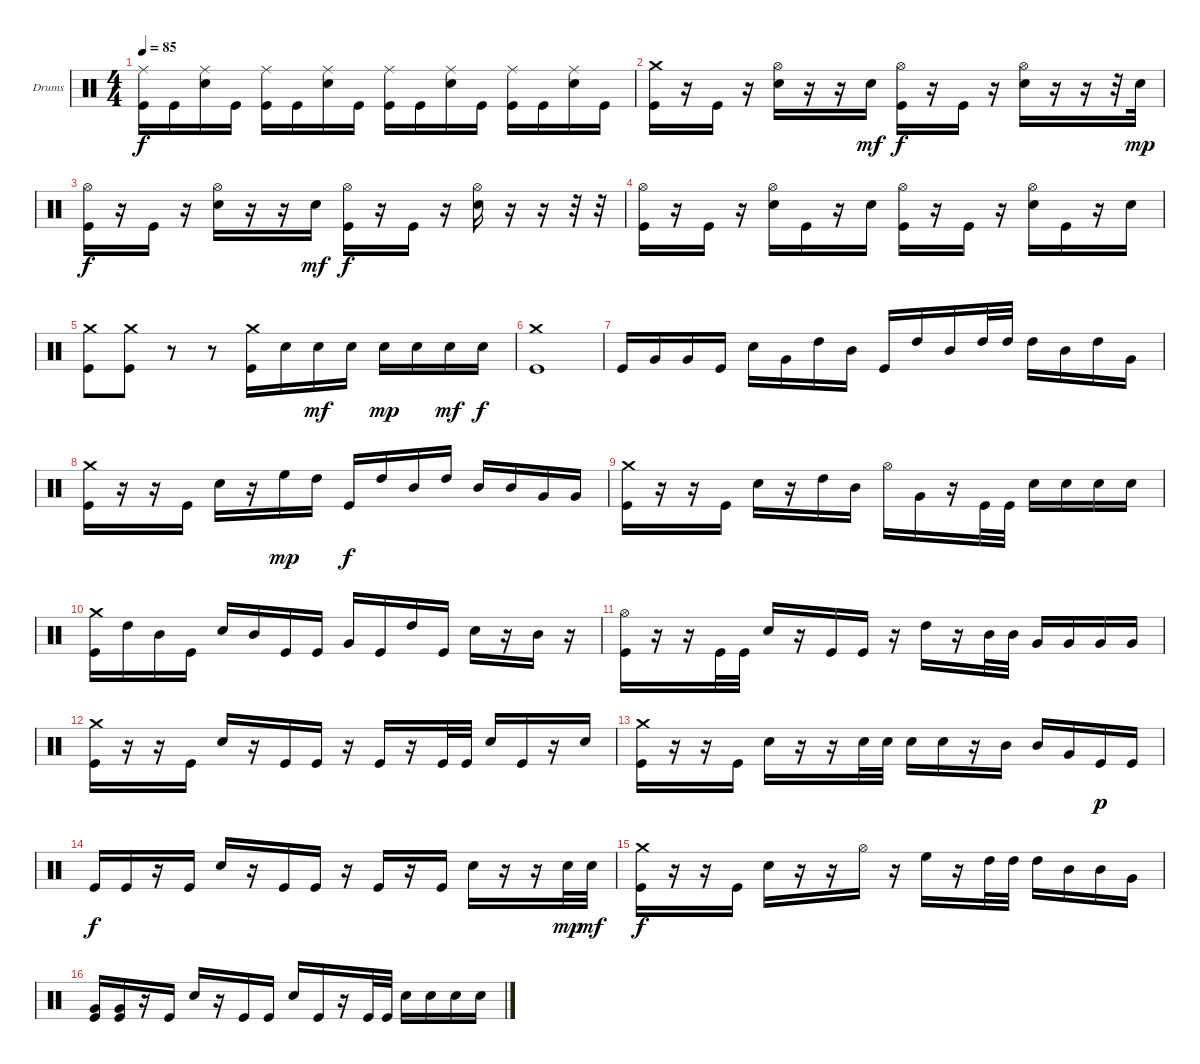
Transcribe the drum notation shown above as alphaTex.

\defaultSystemsLayout 4
\bracketExtendMode groupsimilarinstruments
\firstSystemTrackNameOrientation horizontal
\otherSystemsTrackNameOrientation horizontal
\track ("Drumkit" "Drums") {instrument percussion}
\staff {score}
\articulation defaults
\ts (4 4)
\tempo 85
\clef neutral
\scale
0.333333
\ks c
("Ride (middle)" "Kick (hit)").16{dy f} "Kick (hit)".16 ("Ride (middle)" "Snare (hit) 2").16 "Kick (hit)".16 ("Ride (middle)" "Kick (hit)").16 "Kick (hit)".16 ("Ride (middle)" "Snare (hit) 2").16 "Kick (hit)".16 ("Ride (middle)" "Kick (hit)").16 "Kick (hit)".16 ("Ride (middle)" "Snare (hit) 2").16 "Kick (hit)".16 ("Ride (middle)" "Kick (hit)").16 "Kick (hit)".16 ("Ride (middle)" "Snare (hit) 2").16 "Kick (hit)".16 |
\scale
0.333333 ("Crash medium (hit)" "Kick (hit)").16 r.16 "Kick (hit)".16 r.16 ("Hi-Hat (open)" "Snare (hit) 2").16 r.16 r.16 "Snare (hit) 2".16{dy mf} ("Hi-Hat (open)" "Kick (hit)").16{dy f} r.16 "Kick (hit)".16 r.16 ("Hi-Hat (open)" "Snare (hit) 2").16 r.16 r.16 r.32 "Snare (hit) 2".32{dy mp} |
\scale
0.333333 ("Hi-Hat (open)" "Kick (hit)").16{dy f} r.16 "Kick (hit)".16 r.16 ("Hi-Hat (open)" "Snare (hit) 2").16 r.16 r.16 "Snare (hit) 2".16{dy mf} ("Hi-Hat (open)" "Kick (hit)").16{dy f} r.16 "Kick (hit)".16 r.16 ("Hi-Hat (open)" "Snare (hit) 2").16 r.16 r.16 r.32 r.32 |
\scale
0.333333 ("Hi-Hat (open)" "Kick (hit)").16 r.16 "Kick (hit)".16 r.16 ("Hi-Hat (open)" "Snare (hit) 2").16 "Kick (hit)".16 r.16 "Snare (hit) 2".16 ("Hi-Hat (open)" "Kick (hit)").16 r.16 "Kick (hit)".16 r.16 ("Hi-Hat (open)" "Snare (hit) 2").16 "Kick (hit)".16 r.16 "Snare (hit) 2".16 |
\scale
0.333333 ("Crash medium (hit)" "Kick (hit)").8 ("Crash medium (hit)" "Kick (hit)").8 r.8 r.8 ("Crash medium (hit)" "Kick (hit)").16 "Snare (hit) 2".16 "Snare (hit) 2".16{dy mf} "Snare (hit) 2".16 "Snare (hit) 2".16{dy mp} "Snare (hit) 2".16 "Snare (hit) 2".16{dy mf} "Snare (hit) 2".16{dy f} |
\scale
0.333333 ("Crash medium (hit)" "Kick (hit)").1 |
\scale
0.333333 "Kick (hit)".16 "Very Low Tom (hit)".16 "Very Low Tom (hit)".16 "Kick (hit)".16 "Snare (hit) 2".16 "Very Low Tom (hit)".16 "High Tom (hit)".16 "Mid Tom (hit)".16 "Kick (hit)".16 "High Tom (hit)".16 "Mid Tom (hit)".16 "High Tom (hit)".32 "High Tom (hit)".32 "High Tom (hit)".16 "Mid Tom (hit)".16 "High Tom (hit)".16 "Very Low Tom (hit)".16 |
\scale
0.333333 ("Crash medium (hit)" "Kick (hit)").16 r.16 r.16 "Kick (hit)".16 "Snare (hit) 2".16 r.16 "High Floor Tom (hit)".16{dy mp} "High Tom (hit)".16 "Kick (hit)".16{dy f} "High Tom (hit)".16 "Mid Tom (hit)".16 "High Tom (hit)".16 "Mid Tom (hit)".16 "Mid Tom (hit)".16 "Very Low Tom (hit)".16 "Very Low Tom (hit)".16 |
\scale
0.333333 ("Crash medium (hit)" "Kick (hit)").16 r.16 r.16 "Kick (hit)".16 "Snare (hit) 2".16 r.16 "High Tom (hit)".16 "Mid Tom (hit)".16 "Hi-Hat (open)".16 "Very Low Tom (hit)".16 r.16 "Kick (hit)".32 "Kick (hit)".32 "Snare (hit) 2".16 "Snare (hit) 2".16 "Snare (hit) 2".16 "Snare (hit) 2".16 |
\scale
0.333333 ("Crash medium (hit)" "Kick (hit)").16 "High Tom (hit)".16 "Mid Tom (hit)".16 "Kick (hit)".16 "Snare (hit) 2".16 "Mid Tom (hit)".16 "Kick (hit)".16 "Kick (hit)".16 "Very Low Tom (hit)".16 "Kick (hit)".16 "High Tom (hit)".16 "Kick (hit)".16 "Snare (hit) 2".16 r.16 "Mid Tom (hit)".16 r.16 |
\scale
0.333333 ("Hi-Hat (open)" "Kick (hit)").16 r.16 r.16 "Kick (hit)".32 "Kick (hit)".32 "Snare (hit) 2".16 r.16 "Kick (hit)".16 "Kick (hit)".16 r.16 "High Tom (hit)".16 r.16 "Mid Tom (hit)".32 "Mid Tom (hit)".32 "Very Low Tom (hit)".16 "Very Low Tom (hit)".16 "Very Low Tom (hit)".16 "Very Low Tom (hit)".16 |
\scale
0.333333 ("Crash medium (hit)" "Kick (hit)").16 r.16 r.16 "Kick (hit)".16 "Snare (hit) 2".16 r.16 "Kick (hit)".16 "Kick (hit)".16 r.16 "Kick (hit)".16 r.16 "Kick (hit)".32 "Kick (hit)".32 "Snare (hit) 2".16 "Kick (hit)".16 r.16 "Snare (hit) 2".16 |
\scale
0.333333 ("Crash medium (hit)" "Kick (hit)").16 r.16 r.16 "Kick (hit)".16 "Snare (hit) 2".16 r.16 r.16 "Snare (hit) 2".32 "Snare (hit) 2".32 "Snare (hit) 2".16 "Snare (hit) 2".16 r.16 "Mid Tom (hit)".16 "Mid Tom (hit)".16 "Very Low Tom (hit)".16 "Kick (hit)".16{dy p} "Kick (hit)".16 |
\scale
0.333333 "Kick (hit)".16{dy f} "Kick (hit)".16 r.16 "Kick (hit)".16 "Snare (hit) 2".16 r.16 "Kick (hit)".16 "Kick (hit)".16 r.16 "Kick (hit)".16 r.16 "Kick (hit)".16 "Snare (hit) 2".16 r.16 r.16 "Snare (hit) 2".32{dy mp} "Snare (hit) 2".32{dy mf} |
\scale
0.333333 ("Crash medium (hit)" "Kick (hit)").16{dy f} r.16 r.16 "Kick (hit)".16 "Snare (hit) 2".16 r.16 r.16 "Hi-Hat (open)".16 r.16 "High Floor Tom (hit)".16 r.16 "High Tom (hit)".32 "High Tom (hit)".32 "High Tom (hit)".16 "Mid Tom (hit)".16 "Mid Tom (hit)".16 "Very Low Tom (hit)".16 |
\scale
0.333333 ("Very Low Tom (hit)" "Kick (hit)").16 ("Very Low Tom (hit)" "Kick (hit)").16 r.16 "Kick (hit)".16 "Snare (hit) 2".16 r.16 "Kick (hit)".16 "Kick (hit)".16 "Snare (hit) 2".16 "Kick (hit)".16 r.16 "Kick (hit)".32 "Kick (hit)".32 "Snare (hit) 2".16 "Snare (hit) 2".16 "Snare (hit) 2".16 "Snare (hit) 2".16
